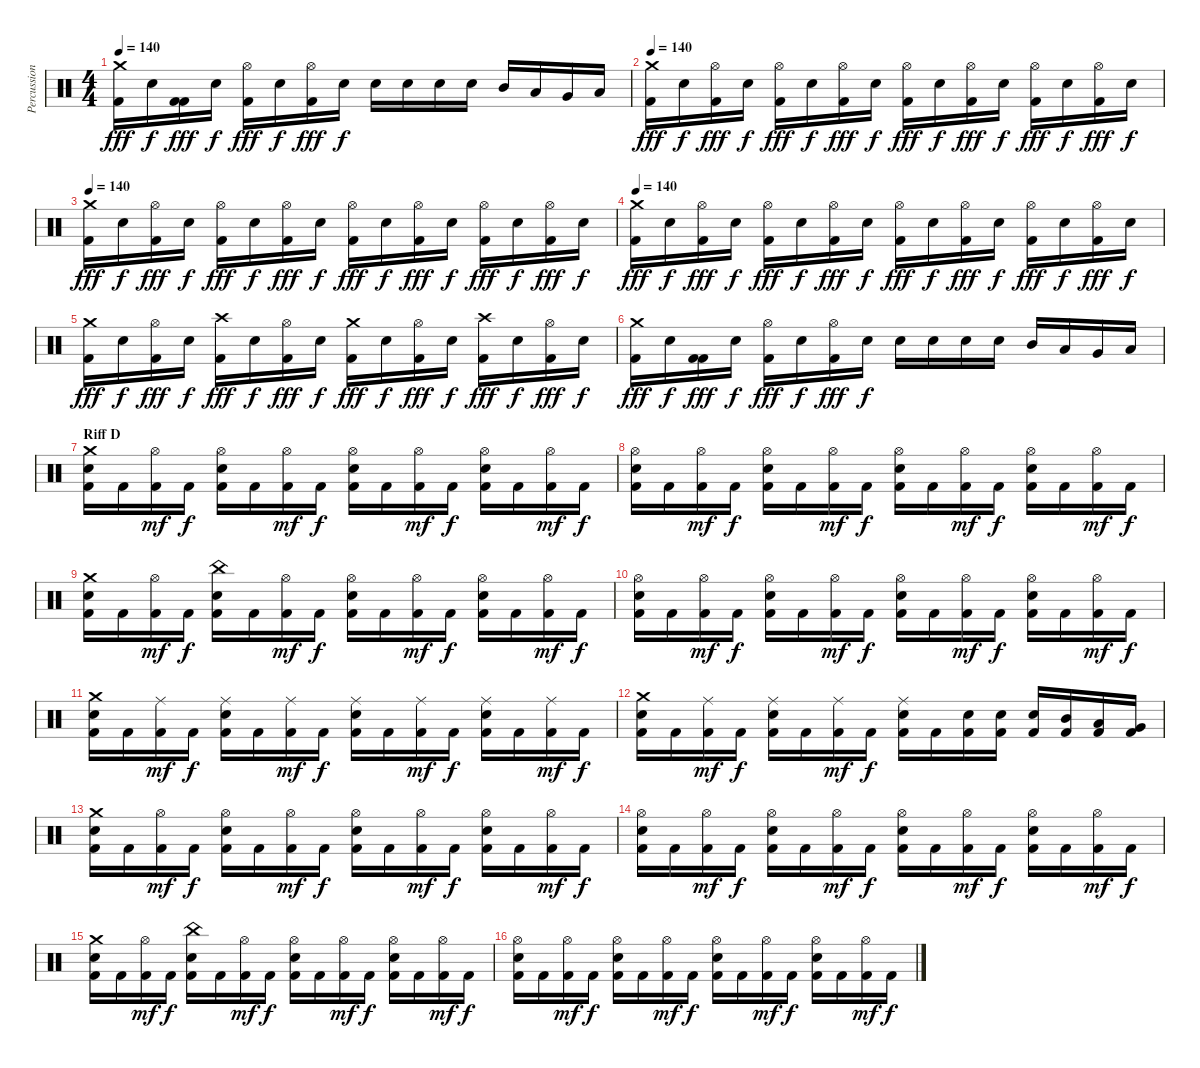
\track ("Percussion" "Percussion") {instrument percussion}
\staff {score}
\articulation defaults
\ts (4 4)
\tempo 140
\clef neutral
\ks c
("Crash medium (hit)" "Kick (hit) 2").16{dy fff} "Snare (hit) 2".16{dy f} ("Kick (hit) 2" "Kick (hit) 2").16{dy fff} "Snare (hit) 2".16{dy f} ("Hi-Hat (open)" "Kick (hit) 2").16{dy fff} "Snare (hit) 2".16{dy f} ("Hi-Hat (open)" "Kick (hit) 2").16{dy fff} "Snare (hit) 2".16{dy f} "Snare (hit) 2".16 "Snare (hit) 2".16 "Snare (hit) 2".16 "Snare (hit) 2".16 "Mid Tom (hit)".16 "Low Tom (hit)".16 "Very Low Tom (hit)".16 "Low Floor Tom (hit)".16 |
\tempo 140
("Crash medium (hit)" "Kick (hit) 2").16{dy fff} "Snare (hit) 2".16{dy f} ("Hi-Hat (open)" "Kick (hit) 2").16{dy fff} "Snare (hit) 2".16{dy f} ("Hi-Hat (open)" "Kick (hit) 2").16{dy fff} "Snare (hit) 2".16{dy f} ("Hi-Hat (open)" "Kick (hit) 2").16{dy fff} "Snare (hit) 2".16{dy f} ("Hi-Hat (open)" "Kick (hit) 2").16{dy fff} "Snare (hit) 2".16{dy f} ("Hi-Hat (open)" "Kick (hit) 2").16{dy fff} "Snare (hit) 2".16{dy f} ("Hi-Hat (open)" "Kick (hit) 2").16{dy fff} "Snare (hit) 2".16{dy f} ("Hi-Hat (open)" "Kick (hit) 2").16{dy fff} "Snare (hit) 2".16{dy f} |
\tempo 140
("Crash medium (hit)" "Kick (hit) 2").16{dy fff} "Snare (hit) 2".16{dy f} ("Hi-Hat (open)" "Kick (hit) 2").16{dy fff} "Snare (hit) 2".16{dy f} ("Hi-Hat (open)" "Kick (hit) 2").16{dy fff} "Snare (hit) 2".16{dy f} ("Hi-Hat (open)" "Kick (hit) 2").16{dy fff} "Snare (hit) 2".16{dy f} ("Hi-Hat (open)" "Kick (hit) 2").16{dy fff} "Snare (hit) 2".16{dy f} ("Hi-Hat (open)" "Kick (hit) 2").16{dy fff} "Snare (hit) 2".16{dy f} ("Hi-Hat (open)" "Kick (hit) 2").16{dy fff} "Snare (hit) 2".16{dy f} ("Hi-Hat (open)" "Kick (hit) 2").16{dy fff} "Snare (hit) 2".16{dy f} |
\tempo 140
("Crash medium (hit)" "Kick (hit) 2").16{dy fff} "Snare (hit) 2".16{dy f} ("Hi-Hat (open)" "Kick (hit) 2").16{dy fff} "Snare (hit) 2".16{dy f} ("Hi-Hat (open)" "Kick (hit) 2").16{dy fff} "Snare (hit) 2".16{dy f} ("Hi-Hat (open)" "Kick (hit) 2").16{dy fff} "Snare (hit) 2".16{dy f} ("Hi-Hat (open)" "Kick (hit) 2").16{dy fff} "Snare (hit) 2".16{dy f} ("Hi-Hat (open)" "Kick (hit) 2").16{dy fff} "Snare (hit) 2".16{dy f} ("Hi-Hat (open)" "Kick (hit) 2").16{dy fff} "Snare (hit) 2".16{dy f} ("Hi-Hat (open)" "Kick (hit) 2").16{dy fff} "Snare (hit) 2".16{dy f} |
("Crash medium (hit)" "Kick (hit) 2").16{dy fff} "Snare (hit) 2".16{dy f} ("Hi-Hat (open)" "Kick (hit) 2").16{dy fff} "Snare (hit) 2".16{dy f} ("Crash high (hit)" "Kick (hit) 2").16{dy fff} "Snare (hit) 2".16{dy f} ("Hi-Hat (open)" "Kick (hit) 2").16{dy fff} "Snare (hit) 2".16{dy f} ("Crash medium (hit)" "Kick (hit) 2").16{dy fff} "Snare (hit) 2".16{dy f} ("Hi-Hat (open)" "Kick (hit) 2").16{dy fff} "Snare (hit) 2".16{dy f} ("Crash high (hit)" "Kick (hit) 2").16{dy fff} "Snare (hit) 2".16{dy f} ("Hi-Hat (open)" "Kick (hit) 2").16{dy fff} "Snare (hit) 2".16{dy f} |
("Crash medium (hit)" "Kick (hit) 2").16{dy fff} "Snare (hit) 2".16{dy f} ("Kick (hit) 2" "Kick (hit) 2").16{dy fff} "Snare (hit) 2".16{dy f} ("Hi-Hat (open)" "Kick (hit) 2").16{dy fff} "Snare (hit) 2".16{dy f} ("Hi-Hat (open)" "Kick (hit) 2").16{dy fff} "Snare (hit) 2".16{dy f} "Snare (hit) 2".16 "Snare (hit) 2".16 "Snare (hit) 2".16 "Snare (hit) 2".16 "Mid Tom (hit)".16 "Low Tom (hit)".16 "Very Low Tom (hit)".16 "Low Floor Tom (hit)".16 |
\section ("" "Riff D")
("Crash medium (hit)" "Snare (hit) 2" "Kick (hit) 2").16 "Kick (hit) 2".16 ("Hi-Hat (open)" "Kick (hit) 2").16{dy mf} "Kick (hit) 2".16{dy f} ("Hi-Hat (open)" "Snare (hit) 2" "Kick (hit) 2").16 "Kick (hit) 2".16 ("Hi-Hat (open)" "Kick (hit) 2").16{dy mf} "Kick (hit) 2".16{dy f} ("Hi-Hat (open)" "Snare (hit) 2" "Kick (hit) 2").16 "Kick (hit) 2".16 ("Hi-Hat (open)" "Kick (hit) 2").16{dy mf} "Kick (hit) 2".16{dy f} ("Hi-Hat (open)" "Snare (hit) 2" "Kick (hit) 2").16 "Kick (hit) 2".16 ("Hi-Hat (open)" "Kick (hit) 2").16{dy mf} "Kick (hit) 2".16{dy f} |
("Hi-Hat (open)" "Snare (hit) 2" "Kick (hit) 2").16 "Kick (hit) 2".16 ("Hi-Hat (open)" "Kick (hit) 2").16{dy mf} "Kick (hit) 2".16{dy f} ("Hi-Hat (open)" "Snare (hit) 2" "Kick (hit) 2").16 "Kick (hit) 2".16 ("Hi-Hat (open)" "Kick (hit) 2").16{dy mf} "Kick (hit) 2".16{dy f} ("Hi-Hat (open)" "Snare (hit) 2" "Kick (hit) 2").16 "Kick (hit) 2".16 ("Hi-Hat (open)" "Kick (hit) 2").16{dy mf} "Kick (hit) 2".16{dy f} ("Hi-Hat (open)" "Snare (hit) 2" "Kick (hit) 2").16 "Kick (hit) 2".16 ("Hi-Hat (open)" "Kick (hit) 2").16{dy mf} "Kick (hit) 2".16{dy f} |
("Crash medium (hit)" "Snare (hit) 2" "Kick (hit) 2").16 "Kick (hit) 2".16 ("Hi-Hat (open)" "Kick (hit) 2").16{dy mf} "Kick (hit) 2".16{dy f} ("China (hit)" "Snare (hit) 2" "Kick (hit) 2").16 "Kick (hit) 2".16 ("Hi-Hat (open)" "Kick (hit) 2").16{dy mf} "Kick (hit) 2".16{dy f} ("Hi-Hat (open)" "Snare (hit) 2" "Kick (hit) 2").16 "Kick (hit) 2".16 ("Hi-Hat (open)" "Kick (hit) 2").16{dy mf} "Kick (hit) 2".16{dy f} ("Hi-Hat (open)" "Snare (hit) 2" "Kick (hit) 2").16 "Kick (hit) 2".16 ("Hi-Hat (open)" "Kick (hit) 2").16{dy mf} "Kick (hit) 2".16{dy f} |
("Hi-Hat (open)" "Snare (hit) 2" "Kick (hit) 2").16 "Kick (hit) 2".16 ("Hi-Hat (open)" "Kick (hit) 2").16{dy mf} "Kick (hit) 2".16{dy f} ("Hi-Hat (open)" "Snare (hit) 2" "Kick (hit) 2").16 "Kick (hit) 2".16 ("Hi-Hat (open)" "Kick (hit) 2").16{dy mf} "Kick (hit) 2".16{dy f} ("Hi-Hat (open)" "Snare (hit) 2" "Kick (hit) 2").16 "Kick (hit) 2".16 ("Hi-Hat (open)" "Kick (hit) 2").16{dy mf} "Kick (hit) 2".16{dy f} ("Hi-Hat (open)" "Snare (hit) 2" "Kick (hit) 2").16 "Kick (hit) 2".16 ("Hi-Hat (open)" "Kick (hit) 2").16{dy mf} "Kick (hit) 2".16{dy f} |
("Crash medium (hit)" "Snare (hit) 2" "Kick (hit) 2").16 "Kick (hit) 2".16 ("Ride (middle)" "Kick (hit) 2").16{dy mf} "Kick (hit) 2".16{dy f} ("Ride (middle)" "Snare (hit) 2" "Kick (hit) 2").16 "Kick (hit) 2".16 ("Ride (middle)" "Kick (hit) 2").16{dy mf} "Kick (hit) 2".16{dy f} ("Ride (middle)" "Snare (hit) 2" "Kick (hit) 2").16 "Kick (hit) 2".16 ("Ride (middle)" "Kick (hit) 2").16{dy mf} "Kick (hit) 2".16{dy f} ("Ride (middle)" "Snare (hit) 2" "Kick (hit) 2").16 "Kick (hit) 2".16 ("Ride (middle)" "Kick (hit) 2").16{dy mf} "Kick (hit) 2".16{dy f} |
("Crash medium (hit)" "Snare (hit) 2" "Kick (hit) 2").16 "Kick (hit) 2".16 ("Ride (middle)" "Kick (hit) 2").16{dy mf} "Kick (hit) 2".16{dy f} ("Ride (middle)" "Snare (hit) 2" "Kick (hit) 2").16 "Kick (hit) 2".16 ("Ride (middle)" "Kick (hit) 2").16{dy mf} "Kick (hit) 2".16{dy f} ("Ride (middle)" "Snare (hit) 2" "Kick (hit) 2").16 "Kick (hit) 2".16 ("Snare (hit) 2" "Kick (hit) 2").16 ("Snare (hit) 2" "Kick (hit) 2").16 ("Snare (hit) 2" "Kick (hit) 2").16 ("Mid Tom (hit)" "Kick (hit) 2").16 ("Low Tom (hit)" "Kick (hit) 2").16 ("Very Low Tom (hit)" "Kick (hit) 2").16 |
("Crash medium (hit)" "Snare (hit) 2" "Kick (hit) 2").16 "Kick (hit) 2".16 ("Hi-Hat (open)" "Kick (hit) 2").16{dy mf} "Kick (hit) 2".16{dy f} ("Hi-Hat (open)" "Snare (hit) 2" "Kick (hit) 2").16 "Kick (hit) 2".16 ("Hi-Hat (open)" "Kick (hit) 2").16{dy mf} "Kick (hit) 2".16{dy f} ("Hi-Hat (open)" "Snare (hit) 2" "Kick (hit) 2").16 "Kick (hit) 2".16 ("Hi-Hat (open)" "Kick (hit) 2").16{dy mf} "Kick (hit) 2".16{dy f} ("Hi-Hat (open)" "Snare (hit) 2" "Kick (hit) 2").16 "Kick (hit) 2".16 ("Hi-Hat (open)" "Kick (hit) 2").16{dy mf} "Kick (hit) 2".16{dy f} |
("Hi-Hat (open)" "Snare (hit) 2" "Kick (hit) 2").16 "Kick (hit) 2".16 ("Hi-Hat (open)" "Kick (hit) 2").16{dy mf} "Kick (hit) 2".16{dy f} ("Hi-Hat (open)" "Snare (hit) 2" "Kick (hit) 2").16 "Kick (hit) 2".16 ("Hi-Hat (open)" "Kick (hit) 2").16{dy mf} "Kick (hit) 2".16{dy f} ("Hi-Hat (open)" "Snare (hit) 2" "Kick (hit) 2").16 "Kick (hit) 2".16 ("Hi-Hat (open)" "Kick (hit) 2").16{dy mf} "Kick (hit) 2".16{dy f} ("Hi-Hat (open)" "Snare (hit) 2" "Kick (hit) 2").16 "Kick (hit) 2".16 ("Hi-Hat (open)" "Kick (hit) 2").16{dy mf} "Kick (hit) 2".16{dy f} |
("Crash medium (hit)" "Snare (hit) 2" "Kick (hit) 2").16 "Kick (hit) 2".16 ("Hi-Hat (open)" "Kick (hit) 2").16{dy mf} "Kick (hit) 2".16{dy f} ("China (hit)" "Snare (hit) 2" "Kick (hit) 2").16 "Kick (hit) 2".16 ("Hi-Hat (open)" "Kick (hit) 2").16{dy mf} "Kick (hit) 2".16{dy f} ("Hi-Hat (open)" "Snare (hit) 2" "Kick (hit) 2").16 "Kick (hit) 2".16 ("Hi-Hat (open)" "Kick (hit) 2").16{dy mf} "Kick (hit) 2".16{dy f} ("Hi-Hat (open)" "Snare (hit) 2" "Kick (hit) 2").16 "Kick (hit) 2".16 ("Hi-Hat (open)" "Kick (hit) 2").16{dy mf} "Kick (hit) 2".16{dy f} |
("Hi-Hat (open)" "Snare (hit) 2" "Kick (hit) 2").16 "Kick (hit) 2".16 ("Hi-Hat (open)" "Kick (hit) 2").16{dy mf} "Kick (hit) 2".16{dy f} ("Hi-Hat (open)" "Snare (hit) 2" "Kick (hit) 2").16 "Kick (hit) 2".16 ("Hi-Hat (open)" "Kick (hit) 2").16{dy mf} "Kick (hit) 2".16{dy f} ("Hi-Hat (open)" "Snare (hit) 2" "Kick (hit) 2").16 "Kick (hit) 2".16 ("Hi-Hat (open)" "Kick (hit) 2").16{dy mf} "Kick (hit) 2".16{dy f} ("Hi-Hat (open)" "Snare (hit) 2" "Kick (hit) 2").16 "Kick (hit) 2".16 ("Hi-Hat (open)" "Kick (hit) 2").16{dy mf} "Kick (hit) 2".16{dy f}
